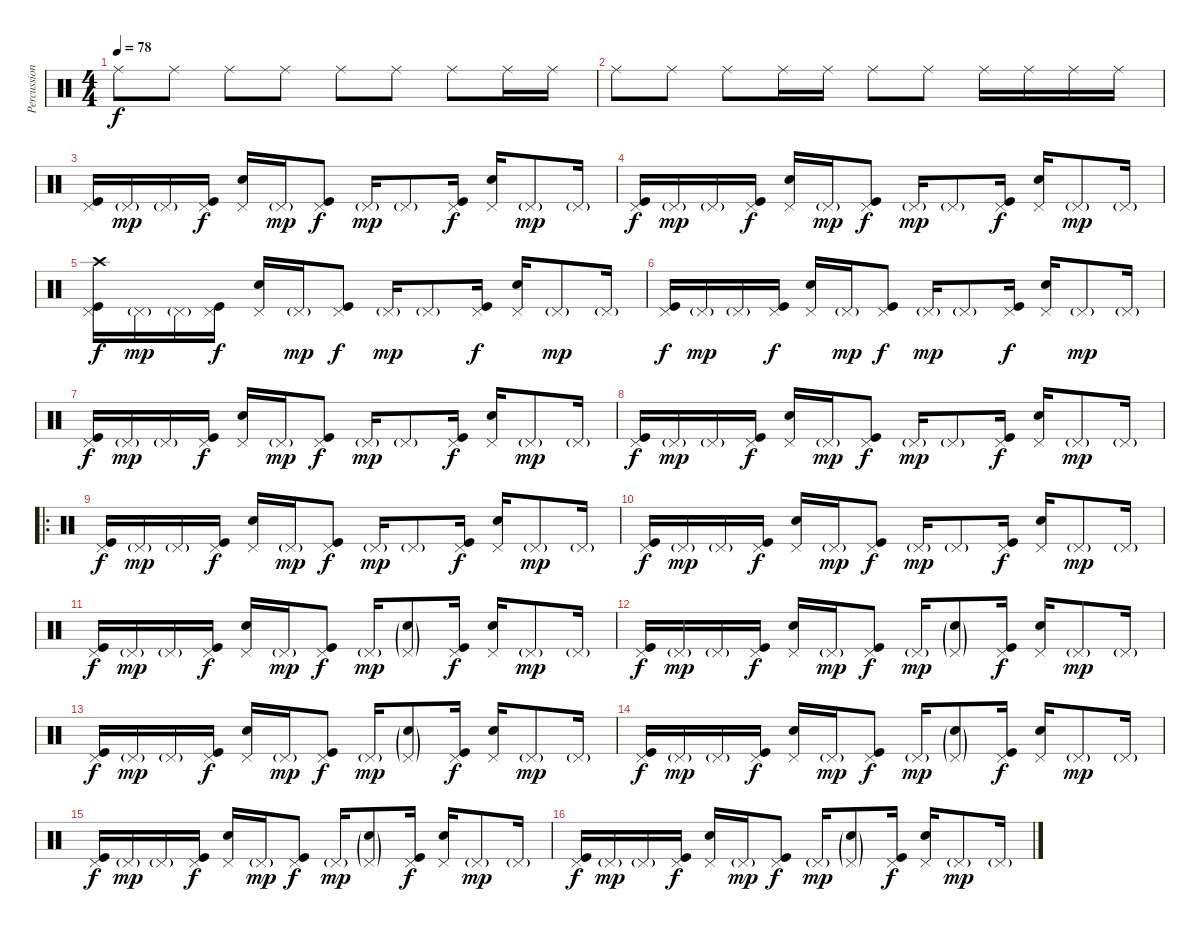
\track ("Percussion" "Percussion") {instrument percussion}
\staff {score}
\articulation defaults
\ts (4 4)
\tempo 78
\clef neutral
\ks c "Ride (middle)".8{dy f} "Ride (middle)".8 "Ride (middle)".8 "Ride (middle)".8 "Ride (middle)".8 "Ride (middle)".8 "Ride (middle)".8 "Ride (middle)".16 "Ride (middle)".16
|
"Ride (middle)".8 "Ride (middle)".8 "Ride (middle)".8 "Ride (middle)".16 "Ride (middle)".16 "Ride (middle)".8 "Ride (middle)".8 "Ride (middle)".16 "Ride (middle)".16 "Ride (middle)".16 "Ride (middle)".16 |
("Pedal Hi-Hat (hit)" "Kick (hit)").16 "Pedal Hi-Hat (hit)"{g}.16{dy mp} "Pedal Hi-Hat (hit)"{g}.16 ("Pedal Hi-Hat (hit)" "Kick (hit)").16{dy f} ("Pedal Hi-Hat (hit)" "Snare (hit) 2").16 "Pedal Hi-Hat (hit)"{g}.16{dy mp} ("Pedal Hi-Hat (hit)" "Kick (hit)").8{dy f} "Pedal Hi-Hat (hit)"{g}.16{dy mp} "Pedal Hi-Hat (hit)"{g}.8 ("Pedal Hi-Hat (hit)" "Kick (hit)").16{dy f} ("Pedal Hi-Hat (hit)" "Snare (hit) 2").16 "Pedal Hi-Hat (hit)"{g}.8{dy mp} "Pedal Hi-Hat (hit)"{g}.16 |
("Pedal Hi-Hat (hit)" "Kick (hit)").16{dy f} "Pedal Hi-Hat (hit)"{g}.16{dy mp} "Pedal Hi-Hat (hit)"{g}.16 ("Pedal Hi-Hat (hit)" "Kick (hit)").16{dy f} ("Pedal Hi-Hat (hit)" "Snare (hit) 2").16 "Pedal Hi-Hat (hit)"{g}.16{dy mp} ("Pedal Hi-Hat (hit)" "Kick (hit)").8{dy f} "Pedal Hi-Hat (hit)"{g}.16{dy mp} "Pedal Hi-Hat (hit)"{g}.8 ("Pedal Hi-Hat (hit)" "Kick (hit)").16{dy f} ("Pedal Hi-Hat (hit)" "Snare (hit) 2").16 "Pedal Hi-Hat (hit)"{g}.8{dy mp} "Pedal Hi-Hat (hit)"{g}.16 |
("Crash high (hit)" "Pedal Hi-Hat (hit)" "Kick (hit)").16{dy f} "Pedal Hi-Hat (hit)"{g}.16{dy mp} "Pedal Hi-Hat (hit)"{g}.16 ("Pedal Hi-Hat (hit)" "Kick (hit)").16{dy f} ("Pedal Hi-Hat (hit)" "Snare (hit) 2").16 "Pedal Hi-Hat (hit)"{g}.16{dy mp} ("Pedal Hi-Hat (hit)" "Kick (hit)").8{dy f} "Pedal Hi-Hat (hit)"{g}.16{dy mp} "Pedal Hi-Hat (hit)"{g}.8 ("Pedal Hi-Hat (hit)" "Kick (hit)").16{dy f} ("Pedal Hi-Hat (hit)" "Snare (hit) 2").16 "Pedal Hi-Hat (hit)"{g}.8{dy mp} "Pedal Hi-Hat (hit)"{g}.16 |
("Pedal Hi-Hat (hit)" "Kick (hit)").16{dy f} "Pedal Hi-Hat (hit)"{g}.16{dy mp} "Pedal Hi-Hat (hit)"{g}.16 ("Pedal Hi-Hat (hit)" "Kick (hit)").16{dy f} ("Pedal Hi-Hat (hit)" "Snare (hit) 2").16 "Pedal Hi-Hat (hit)"{g}.16{dy mp} ("Pedal Hi-Hat (hit)" "Kick (hit)").8{dy f} "Pedal Hi-Hat (hit)"{g}.16{dy mp} "Pedal Hi-Hat (hit)"{g}.8 ("Pedal Hi-Hat (hit)" "Kick (hit)").16{dy f} ("Pedal Hi-Hat (hit)" "Snare (hit) 2").16 "Pedal Hi-Hat (hit)"{g}.8{dy mp} "Pedal Hi-Hat (hit)"{g}.16 |
("Pedal Hi-Hat (hit)" "Kick (hit)").16{dy f} "Pedal Hi-Hat (hit)"{g}.16{dy mp} "Pedal Hi-Hat (hit)"{g}.16 ("Pedal Hi-Hat (hit)" "Kick (hit)").16{dy f} ("Pedal Hi-Hat (hit)" "Snare (hit) 2").16 "Pedal Hi-Hat (hit)"{g}.16{dy mp} ("Pedal Hi-Hat (hit)" "Kick (hit)").8{dy f} "Pedal Hi-Hat (hit)"{g}.16{dy mp} "Pedal Hi-Hat (hit)"{g}.8 ("Pedal Hi-Hat (hit)" "Kick (hit)").16{dy f} ("Pedal Hi-Hat (hit)" "Snare (hit) 2").16 "Pedal Hi-Hat (hit)"{g}.8{dy mp} "Pedal Hi-Hat (hit)"{g}.16 |
("Pedal Hi-Hat (hit)" "Kick (hit)").16{dy f} "Pedal Hi-Hat (hit)"{g}.16{dy mp} "Pedal Hi-Hat (hit)"{g}.16 ("Pedal Hi-Hat (hit)" "Kick (hit)").16{dy f} ("Pedal Hi-Hat (hit)" "Snare (hit) 2").16 "Pedal Hi-Hat (hit)"{g}.16{dy mp} ("Pedal Hi-Hat (hit)" "Kick (hit)").8{dy f} "Pedal Hi-Hat (hit)"{g}.16{dy mp} "Pedal Hi-Hat (hit)"{g}.8 ("Pedal Hi-Hat (hit)" "Kick (hit)").16{dy f} ("Pedal Hi-Hat (hit)" "Snare (hit) 2").16 "Pedal Hi-Hat (hit)"{g}.8{dy mp} "Pedal Hi-Hat (hit)"{g}.16 |
\ro
("Pedal Hi-Hat (hit)" "Kick (hit)").16{dy f} "Pedal Hi-Hat (hit)"{g}.16{dy mp} "Pedal Hi-Hat (hit)"{g}.16 ("Pedal Hi-Hat (hit)" "Kick (hit)").16{dy f} ("Pedal Hi-Hat (hit)" "Snare (hit) 2").16 "Pedal Hi-Hat (hit)"{g}.16{dy mp} ("Pedal Hi-Hat (hit)" "Kick (hit)").8{dy f} "Pedal Hi-Hat (hit)"{g}.16{dy mp} "Pedal Hi-Hat (hit)"{g}.8 ("Pedal Hi-Hat (hit)" "Kick (hit)").16{dy f} ("Pedal Hi-Hat (hit)" "Snare (hit) 2").16 "Pedal Hi-Hat (hit)"{g}.8{dy mp} "Pedal Hi-Hat (hit)"{g}.16 |
("Pedal Hi-Hat (hit)" "Kick (hit)").16{dy f} "Pedal Hi-Hat (hit)"{g}.16{dy mp} "Pedal Hi-Hat (hit)"{g}.16 ("Pedal Hi-Hat (hit)" "Kick (hit)").16{dy f} ("Pedal Hi-Hat (hit)" "Snare (hit) 2").16 "Pedal Hi-Hat (hit)"{g}.16{dy mp} ("Pedal Hi-Hat (hit)" "Kick (hit)").8{dy f} "Pedal Hi-Hat (hit)"{g}.16{dy mp} "Pedal Hi-Hat (hit)"{g}.8 ("Pedal Hi-Hat (hit)" "Kick (hit)").16{dy f} ("Pedal Hi-Hat (hit)" "Snare (hit) 2").16 "Pedal Hi-Hat (hit)"{g}.8{dy mp} "Pedal Hi-Hat (hit)"{g}.16 |
("Pedal Hi-Hat (hit)" "Kick (hit)").16{dy f} "Pedal Hi-Hat (hit)"{g}.16{dy mp} "Pedal Hi-Hat (hit)"{g}.16 ("Pedal Hi-Hat (hit)" "Kick (hit)").16{dy f} ("Pedal Hi-Hat (hit)" "Snare (hit) 2").16 "Pedal Hi-Hat (hit)"{g}.16{dy mp} ("Pedal Hi-Hat (hit)" "Kick (hit)").8{dy f} "Pedal Hi-Hat (hit)"{g}.16{dy mp} ("Pedal Hi-Hat (hit)"{g} "Snare (hit) 2"{g}).8 ("Pedal Hi-Hat (hit)" "Kick (hit)").16{dy f} ("Pedal Hi-Hat (hit)" "Snare (hit) 2").16 "Pedal Hi-Hat (hit)"{g}.8{dy mp} "Pedal Hi-Hat (hit)"{g}.16 |
("Pedal Hi-Hat (hit)" "Kick (hit)").16{dy f} "Pedal Hi-Hat (hit)"{g}.16{dy mp} "Pedal Hi-Hat (hit)"{g}.16 ("Pedal Hi-Hat (hit)" "Kick (hit)").16{dy f} ("Pedal Hi-Hat (hit)" "Snare (hit) 2").16 "Pedal Hi-Hat (hit)"{g}.16{dy mp} ("Pedal Hi-Hat (hit)" "Kick (hit)").8{dy f} "Pedal Hi-Hat (hit)"{g}.16{dy mp} ("Pedal Hi-Hat (hit)"{g} "Snare (hit) 2"{g}).8 ("Pedal Hi-Hat (hit)" "Kick (hit)").16{dy f} ("Pedal Hi-Hat (hit)" "Snare (hit) 2").16 "Pedal Hi-Hat (hit)"{g}.8{dy mp} "Pedal Hi-Hat (hit)"{g}.16 |
("Pedal Hi-Hat (hit)" "Kick (hit)").16{dy f} "Pedal Hi-Hat (hit)"{g}.16{dy mp} "Pedal Hi-Hat (hit)"{g}.16 ("Pedal Hi-Hat (hit)" "Kick (hit)").16{dy f} ("Pedal Hi-Hat (hit)" "Snare (hit) 2").16 "Pedal Hi-Hat (hit)"{g}.16{dy mp} ("Pedal Hi-Hat (hit)" "Kick (hit)").8{dy f} "Pedal Hi-Hat (hit)"{g}.16{dy mp} ("Pedal Hi-Hat (hit)"{g} "Snare (hit) 2"{g}).8 ("Pedal Hi-Hat (hit)" "Kick (hit)").16{dy f} ("Pedal Hi-Hat (hit)" "Snare (hit) 2").16 "Pedal Hi-Hat (hit)"{g}.8{dy mp} "Pedal Hi-Hat (hit)"{g}.16 |
("Pedal Hi-Hat (hit)" "Kick (hit)").16{dy f} "Pedal Hi-Hat (hit)"{g}.16{dy mp} "Pedal Hi-Hat (hit)"{g}.16 ("Pedal Hi-Hat (hit)" "Kick (hit)").16{dy f} ("Pedal Hi-Hat (hit)" "Snare (hit) 2").16 "Pedal Hi-Hat (hit)"{g}.16{dy mp} ("Pedal Hi-Hat (hit)" "Kick (hit)").8{dy f} "Pedal Hi-Hat (hit)"{g}.16{dy mp} ("Pedal Hi-Hat (hit)"{g} "Snare (hit) 2"{g}).8 ("Pedal Hi-Hat (hit)" "Kick (hit)").16{dy f} ("Pedal Hi-Hat (hit)" "Snare (hit) 2").16 "Pedal Hi-Hat (hit)"{g}.8{dy mp} "Pedal Hi-Hat (hit)"{g}.16 |
("Pedal Hi-Hat (hit)" "Kick (hit)").16{dy f} "Pedal Hi-Hat (hit)"{g}.16{dy mp} "Pedal Hi-Hat (hit)"{g}.16 ("Pedal Hi-Hat (hit)" "Kick (hit)").16{dy f} ("Pedal Hi-Hat (hit)" "Snare (hit) 2").16 "Pedal Hi-Hat (hit)"{g}.16{dy mp} ("Pedal Hi-Hat (hit)" "Kick (hit)").8{dy f} "Pedal Hi-Hat (hit)"{g}.16{dy mp} ("Pedal Hi-Hat (hit)"{g} "Snare (hit) 2"{g}).8 ("Pedal Hi-Hat (hit)" "Kick (hit)").16{dy f} ("Pedal Hi-Hat (hit)" "Snare (hit) 2").16 "Pedal Hi-Hat (hit)"{g}.8{dy mp} "Pedal Hi-Hat (hit)"{g}.16 |
("Pedal Hi-Hat (hit)" "Kick (hit)").16{dy f} "Pedal Hi-Hat (hit)"{g}.16{dy mp} "Pedal Hi-Hat (hit)"{g}.16 ("Pedal Hi-Hat (hit)" "Kick (hit)").16{dy f} ("Pedal Hi-Hat (hit)" "Snare (hit) 2").16 "Pedal Hi-Hat (hit)"{g}.16{dy mp} ("Pedal Hi-Hat (hit)" "Kick (hit)").8{dy f} "Pedal Hi-Hat (hit)"{g}.16{dy mp} ("Pedal Hi-Hat (hit)"{g} "Snare (hit) 2"{g}).8 ("Pedal Hi-Hat (hit)" "Kick (hit)").16{dy f} ("Pedal Hi-Hat (hit)" "Snare (hit) 2").16 "Pedal Hi-Hat (hit)"{g}.8{dy mp} "Pedal Hi-Hat (hit)"{g}.16
